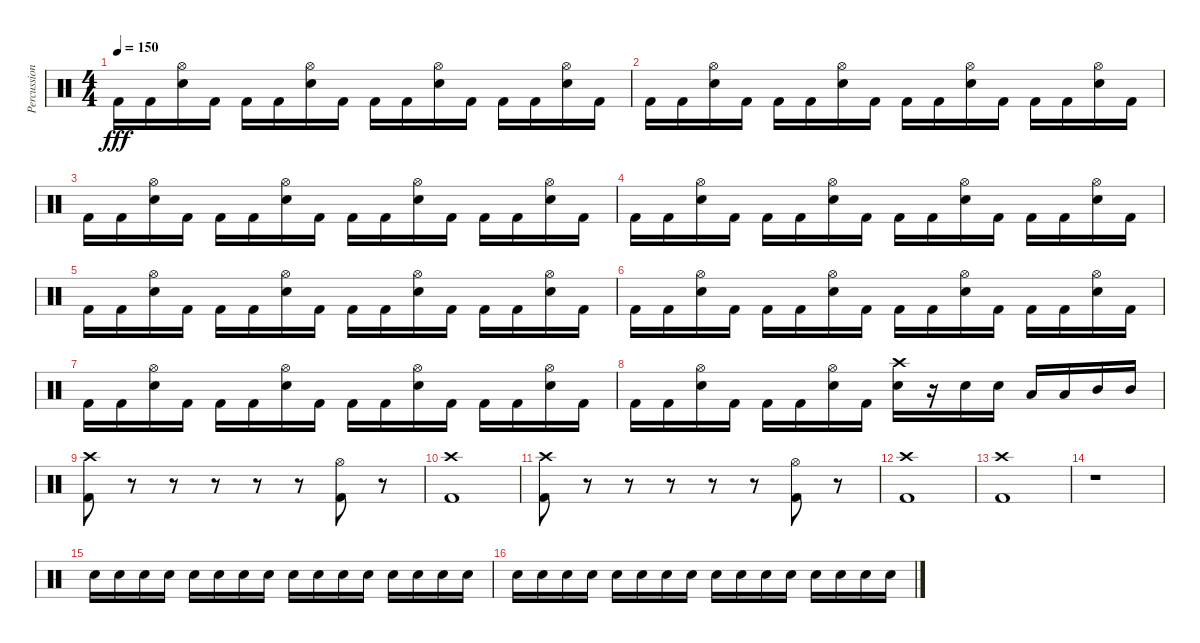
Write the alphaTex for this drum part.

\track ("Percussion" "Percussion") {instrument percussion}
\staff {score}
\articulation defaults
\ts (4 4)
\tempo 150
\clef neutral
\ks c "Kick (hit) 2".16{dy fff} "Kick (hit) 2".16
("Snare (hit) 2" "Hi-Hat (open)").16 "Kick (hit) 2".16 "Kick (hit) 2".16 "Kick (hit) 2".16 ("Snare (hit) 2" "Hi-Hat (open)").16 "Kick (hit) 2".16 "Kick (hit) 2".16 "Kick (hit) 2".16 ("Snare (hit) 2" "Hi-Hat (open)").16 "Kick (hit) 2".16 "Kick (hit) 2".16 "Kick (hit) 2".16 ("Snare (hit) 2" "Hi-Hat (open)").16 "Kick (hit) 2".16 |
"Kick (hit) 2".16 "Kick (hit) 2".16 ("Snare (hit) 2" "Hi-Hat (open)").16 "Kick (hit) 2".16 "Kick (hit) 2".16 "Kick (hit) 2".16 ("Snare (hit) 2" "Hi-Hat (open)").16 "Kick (hit) 2".16 "Kick (hit) 2".16 "Kick (hit) 2".16 ("Snare (hit) 2" "Hi-Hat (open)").16 "Kick (hit) 2".16 "Kick (hit) 2".16 "Kick (hit) 2".16 ("Snare (hit) 2" "Hi-Hat (open)").16 "Kick (hit) 2".16 |
"Kick (hit) 2".16 "Kick (hit) 2".16 ("Snare (hit) 2" "Hi-Hat (open)").16 "Kick (hit) 2".16 "Kick (hit) 2".16 "Kick (hit) 2".16 ("Snare (hit) 2" "Hi-Hat (open)").16 "Kick (hit) 2".16 "Kick (hit) 2".16 "Kick (hit) 2".16 ("Snare (hit) 2" "Hi-Hat (open)").16 "Kick (hit) 2".16 "Kick (hit) 2".16 "Kick (hit) 2".16 ("Snare (hit) 2" "Hi-Hat (open)").16 "Kick (hit) 2".16 |
"Kick (hit) 2".16 "Kick (hit) 2".16 ("Snare (hit) 2" "Hi-Hat (open)").16 "Kick (hit) 2".16 "Kick (hit) 2".16 "Kick (hit) 2".16 ("Snare (hit) 2" "Hi-Hat (open)").16 "Kick (hit) 2".16 "Kick (hit) 2".16 "Kick (hit) 2".16 ("Snare (hit) 2" "Hi-Hat (open)").16 "Kick (hit) 2".16 "Kick (hit) 2".16 "Kick (hit) 2".16 ("Snare (hit) 2" "Hi-Hat (open)").16 "Kick (hit) 2".16 |
"Kick (hit) 2".16 "Kick (hit) 2".16 ("Snare (hit) 2" "Hi-Hat (open)").16 "Kick (hit) 2".16 "Kick (hit) 2".16 "Kick (hit) 2".16 ("Snare (hit) 2" "Hi-Hat (open)").16 "Kick (hit) 2".16 "Kick (hit) 2".16 "Kick (hit) 2".16 ("Snare (hit) 2" "Hi-Hat (open)").16 "Kick (hit) 2".16 "Kick (hit) 2".16 "Kick (hit) 2".16 ("Snare (hit) 2" "Hi-Hat (open)").16 "Kick (hit) 2".16 |
"Kick (hit) 2".16 "Kick (hit) 2".16 ("Snare (hit) 2" "Hi-Hat (open)").16 "Kick (hit) 2".16 "Kick (hit) 2".16 "Kick (hit) 2".16 ("Snare (hit) 2" "Hi-Hat (open)").16 "Kick (hit) 2".16 "Kick (hit) 2".16 "Kick (hit) 2".16 ("Snare (hit) 2" "Hi-Hat (open)").16 "Kick (hit) 2".16 "Kick (hit) 2".16 "Kick (hit) 2".16 ("Snare (hit) 2" "Hi-Hat (open)").16 "Kick (hit) 2".16 |
"Kick (hit) 2".16 "Kick (hit) 2".16 ("Snare (hit) 2" "Hi-Hat (open)").16 "Kick (hit) 2".16 "Kick (hit) 2".16 "Kick (hit) 2".16 ("Snare (hit) 2" "Hi-Hat (open)").16 "Kick (hit) 2".16 "Kick (hit) 2".16 "Kick (hit) 2".16 ("Snare (hit) 2" "Hi-Hat (open)").16 "Kick (hit) 2".16 "Kick (hit) 2".16 "Kick (hit) 2".16 ("Snare (hit) 2" "Hi-Hat (open)").16 "Kick (hit) 2".16 |
"Kick (hit) 2".16 "Kick (hit) 2".16 ("Snare (hit) 2" "Hi-Hat (open)").16 "Kick (hit) 2".16 "Kick (hit) 2".16 "Kick (hit) 2".16 ("Snare (hit) 2" "Hi-Hat (open)").16 "Kick (hit) 2".16 ("Snare (hit) 2" "Crash high (hit)").16 r.16 "Snare (hit) 2".16 "Snare (hit) 2".16 "Low Tom (hit)".16 "Low Tom (hit)".16 "Mid Tom (hit)".16 "Mid Tom (hit)".16 |
("Kick (hit) 2" "Crash high (hit)").8 r.8 r.8 r.8 r.8 r.8 ("Kick (hit) 2" "Hi-Hat (open)").8 r.8 |
("Kick (hit) 2" "Crash high (hit)").1 |
("Kick (hit) 2" "Crash high (hit)").8 r.8 r.8 r.8 r.8 r.8 ("Kick (hit) 2" "Hi-Hat (open)").8 r.8 |
("Kick (hit) 2" "Crash high (hit)").1 |
("Kick (hit) 2" "Crash high (hit)").1 |
r.1 |
"Electric Snare (hit)".16{volume 5} "Electric Snare (hit)".16 "Electric Snare (hit)".16 "Electric Snare (hit)".16 "Electric Snare (hit)".16{volume 7} "Electric Snare (hit)".16 "Electric Snare (hit)".16 "Electric Snare (hit)".16 "Electric Snare (hit)".16{volume 8} "Electric Snare (hit)".16 "Electric Snare (hit)".16 "Electric Snare (hit)".16 "Electric Snare (hit)".16{volume 10} "Electric Snare (hit)".16 "Electric Snare (hit)".16 "Electric Snare (hit)".16 |
"Electric Snare (hit)".16{volume 11} "Electric Snare (hit)".16 "Electric Snare (hit)".16 "Electric Snare (hit)".16 "Electric Snare (hit)".16{volume 12} "Electric Snare (hit)".16 "Electric Snare (hit)".16 "Electric Snare (hit)".16 "Electric Snare (hit)".16{volume 13} "Electric Snare (hit)".16 "Electric Snare (hit)".16 "Electric Snare (hit)".16 "Electric Snare (hit)".16{volume 16} "Electric Snare (hit)".16 "Electric Snare (hit)".16 "Electric Snare (hit)".16
